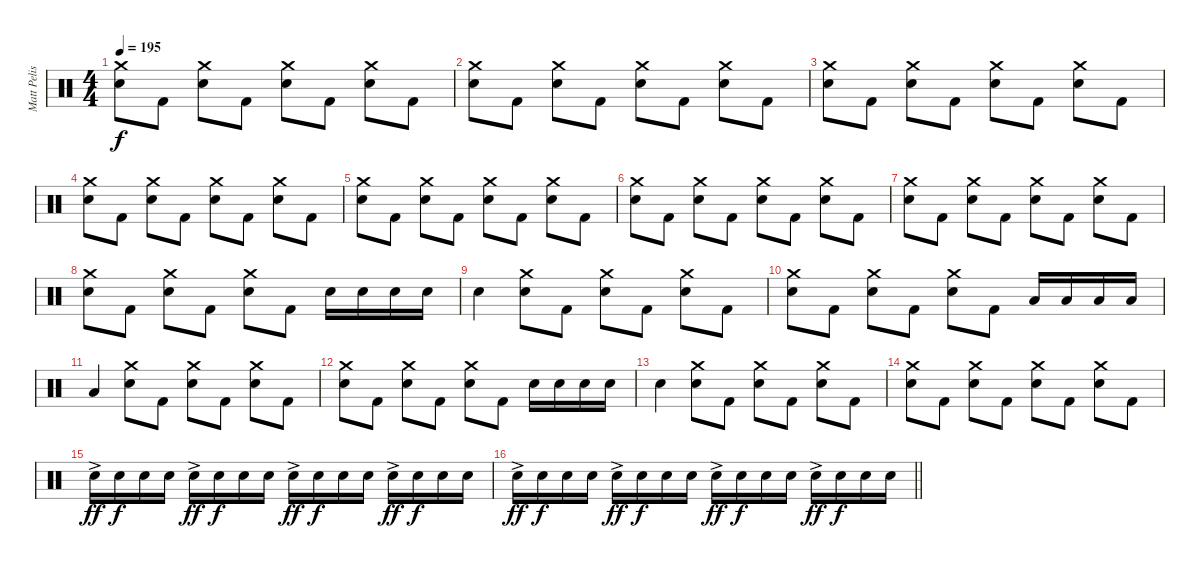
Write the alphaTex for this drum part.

\track ("Matt Pelissier" "Matt Pelis") {instrument percussion}
\staff {score}
\articulation defaults
\ts (4 4)
\tempo 195
\clef neutral
\ks c
("Crash medium (hit)" "Electric Snare (hit)").8{dy f} "Kick (hit) 2".8 ("Crash medium (hit)" "Electric Snare (hit)").8 "Kick (hit) 2".8 ("Crash medium (hit)" "Electric Snare (hit)").8 "Kick (hit) 2".8 ("Crash medium (hit)" "Electric Snare (hit)").8 "Kick (hit) 2".8 |
("Crash medium (hit)" "Electric Snare (hit)").8 "Kick (hit) 2".8 ("Crash medium (hit)" "Electric Snare (hit)").8 "Kick (hit) 2".8 ("Crash medium (hit)" "Electric Snare (hit)").8 "Kick (hit) 2".8 ("Crash medium (hit)" "Electric Snare (hit)").8 "Kick (hit) 2".8 |
("Crash medium (hit)" "Electric Snare (hit)").8 "Kick (hit) 2".8 ("Crash medium (hit)" "Electric Snare (hit)").8 "Kick (hit) 2".8 ("Crash medium (hit)" "Electric Snare (hit)").8 "Kick (hit) 2".8 ("Crash medium (hit)" "Electric Snare (hit)").8 "Kick (hit) 2".8 |
("Crash medium (hit)" "Electric Snare (hit)").8 "Kick (hit) 2".8 ("Crash medium (hit)" "Electric Snare (hit)").8 "Kick (hit) 2".8 ("Crash medium (hit)" "Electric Snare (hit)").8 "Kick (hit) 2".8 ("Crash medium (hit)" "Electric Snare (hit)").8 "Kick (hit) 2".8 |
("Crash medium (hit)" "Electric Snare (hit)").8 "Kick (hit) 2".8 ("Crash medium (hit)" "Electric Snare (hit)").8 "Kick (hit) 2".8 ("Crash medium (hit)" "Electric Snare (hit)").8 "Kick (hit) 2".8 ("Crash medium (hit)" "Electric Snare (hit)").8 "Kick (hit) 2".8 |
("Crash medium (hit)" "Electric Snare (hit)").8 "Kick (hit) 2".8 ("Crash medium (hit)" "Electric Snare (hit)").8 "Kick (hit) 2".8 ("Crash medium (hit)" "Electric Snare (hit)").8 "Kick (hit) 2".8 ("Crash medium (hit)" "Electric Snare (hit)").8 "Kick (hit) 2".8 |
("Crash medium (hit)" "Electric Snare (hit)").8 "Kick (hit) 2".8 ("Crash medium (hit)" "Electric Snare (hit)").8 "Kick (hit) 2".8 ("Crash medium (hit)" "Electric Snare (hit)").8 "Kick (hit) 2".8 ("Crash medium (hit)" "Electric Snare (hit)").8 "Kick (hit) 2".8 |
("Crash medium (hit)" "Electric Snare (hit)").8 "Kick (hit) 2".8 ("Crash medium (hit)" "Electric Snare (hit)").8 "Kick (hit) 2".8 ("Crash medium (hit)" "Electric Snare (hit)").8 "Kick (hit) 2".8 "Electric Snare (hit)".16 "Electric Snare (hit)".16 "Electric Snare (hit)".16 "Electric Snare (hit)".16 |
"Electric Snare (hit)".4 ("Crash medium (hit)" "Electric Snare (hit)").8 "Kick (hit) 2".8 ("Crash medium (hit)" "Electric Snare (hit)").8 "Kick (hit) 2".8 ("Crash medium (hit)" "Electric Snare (hit)").8 "Kick (hit) 2".8 |
("Crash medium (hit)" "Electric Snare (hit)").8 "Kick (hit) 2".8 ("Crash medium (hit)" "Electric Snare (hit)").8 "Kick (hit) 2".8 ("Crash medium (hit)" "Electric Snare (hit)").8 "Kick (hit) 2".8 "Low Tom (hit)".16 "Low Tom (hit)".16 "Low Tom (hit)".16 "Low Tom (hit)".16 |
"Low Tom (hit)".4 ("Crash medium (hit)" "Electric Snare (hit)").8 "Kick (hit) 2".8 ("Crash medium (hit)" "Electric Snare (hit)").8 "Kick (hit) 2".8 ("Crash medium (hit)" "Electric Snare (hit)").8 "Kick (hit) 2".8 |
("Crash medium (hit)" "Electric Snare (hit)").8 "Kick (hit) 2".8 ("Crash medium (hit)" "Electric Snare (hit)").8 "Kick (hit) 2".8 ("Crash medium (hit)" "Electric Snare (hit)").8 "Kick (hit) 2".8 "Electric Snare (hit)".16 "Electric Snare (hit)".16 "Electric Snare (hit)".16 "Electric Snare (hit)".16 |
"Electric Snare (hit)".4 ("Crash medium (hit)" "Electric Snare (hit)").8 "Kick (hit) 2".8 ("Crash medium (hit)" "Electric Snare (hit)").8 "Kick (hit) 2".8 ("Crash medium (hit)" "Electric Snare (hit)").8 "Kick (hit) 2".8 |
("Crash medium (hit)" "Electric Snare (hit)").8 "Kick (hit) 2".8 ("Crash medium (hit)" "Electric Snare (hit)").8 "Kick (hit) 2".8 ("Crash medium (hit)" "Electric Snare (hit)").8 "Kick (hit) 2".8 ("Crash medium (hit)" "Electric Snare (hit)").8 "Kick (hit) 2".8 |
"Electric Snare (hit)"{ac}.16{dy ff} "Electric Snare (hit)".16{dy f} "Electric Snare (hit)".16 "Electric Snare (hit)".16 "Electric Snare (hit)"{ac}.16{dy ff} "Electric Snare (hit)".16{dy f} "Electric Snare (hit)".16 "Electric Snare (hit)".16 "Electric Snare (hit)"{ac}.16{dy ff} "Electric Snare (hit)".16{dy f} "Electric Snare (hit)".16 "Electric Snare (hit)".16 "Electric Snare (hit)"{ac}.16{dy ff} "Electric Snare (hit)".16{dy f} "Electric Snare (hit)".16 "Electric Snare (hit)".16 |
\barLineRight lightlight "Electric Snare (hit)"{ac}.16{dy ff} "Electric Snare (hit)".16{dy f} "Electric Snare (hit)".16 "Electric Snare (hit)".16 "Electric Snare (hit)"{ac}.16{dy ff} "Electric Snare (hit)".16{dy f} "Electric Snare (hit)".16 "Electric Snare (hit)".16 "Electric Snare (hit)"{ac}.16{dy ff} "Electric Snare (hit)".16{dy f} "Electric Snare (hit)".16 "Electric Snare (hit)".16 "Electric Snare (hit)"{ac}.16{dy ff} "Electric Snare (hit)".16{dy f} "Electric Snare (hit)".16 "Electric Snare (hit)".16
